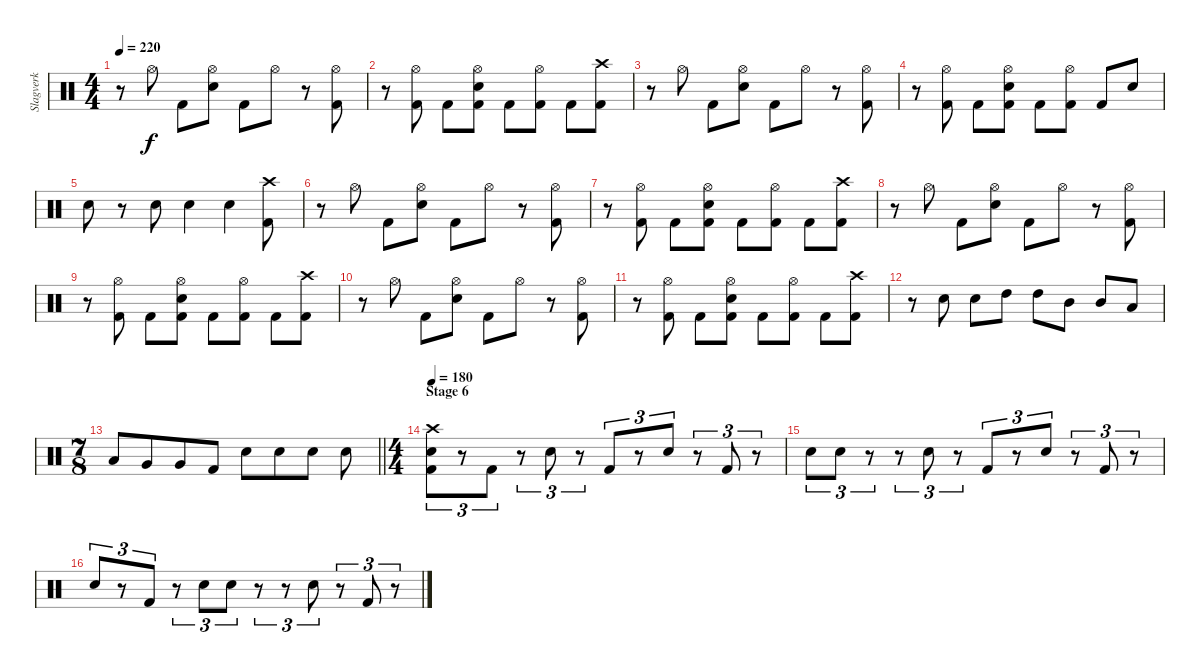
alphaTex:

\track ("Slagverk" "Slagverk") {instrument percussion}
\staff {score}
\articulation defaults
\ts (4 4)
\tempo 220
\clef neutral
\ks c
r.8{dy f} "Hi-Hat (open)".8 "Kick (hit) 2".8 ("Hi-Hat (open)" "Electric Snare (hit)").8 "Kick (hit) 2".8 "Hi-Hat (open)".8 r.8 ("Hi-Hat (open)" "Kick (hit) 2").8 |
r.8 ("Hi-Hat (open)" "Kick (hit) 2").8 "Kick (hit) 2".8 ("Hi-Hat (open)" "Electric Snare (hit)" "Kick (hit) 2").8 "Kick (hit) 2".8 ("Hi-Hat (open)" "Kick (hit) 2").8 "Kick (hit) 2".8 ("Crash high (hit)" "Kick (hit) 2").8 |
r.8 "Hi-Hat (open)".8 "Kick (hit) 2".8 ("Hi-Hat (open)" "Electric Snare (hit)").8 "Kick (hit) 2".8 "Hi-Hat (open)".8 r.8 ("Hi-Hat (open)" "Kick (hit) 2").8 |
r.8 ("Hi-Hat (open)" "Kick (hit) 2").8 "Kick (hit) 2".8 ("Hi-Hat (open)" "Electric Snare (hit)" "Kick (hit) 2").8 "Kick (hit) 2".8 ("Hi-Hat (open)" "Kick (hit) 2").8 "Kick (hit) 2".8 "Electric Snare (hit)".8 |
"Electric Snare (hit)".8 r.8 "Electric Snare (hit)".8 "Electric Snare (hit)".4 "Electric Snare (hit)".4 ("Crash high (hit)" "Kick (hit) 2").8 |
r.8 "Hi-Hat (open)".8 "Kick (hit) 2".8 ("Hi-Hat (open)" "Electric Snare (hit)").8 "Kick (hit) 2".8 "Hi-Hat (open)".8 r.8 ("Hi-Hat (open)" "Kick (hit) 2").8 |
r.8 ("Hi-Hat (open)" "Kick (hit) 2").8 "Kick (hit) 2".8 ("Hi-Hat (open)" "Electric Snare (hit)" "Kick (hit) 2").8 "Kick (hit) 2".8 ("Hi-Hat (open)" "Kick (hit) 2").8 "Kick (hit) 2".8 ("Crash high (hit)" "Kick (hit) 2").8 |
r.8 "Hi-Hat (open)".8 "Kick (hit) 2".8 ("Hi-Hat (open)" "Electric Snare (hit)").8 "Kick (hit) 2".8 "Hi-Hat (open)".8 r.8 ("Hi-Hat (open)" "Kick (hit) 2").8 |
r.8 ("Hi-Hat (open)" "Kick (hit) 2").8 "Kick (hit) 2".8 ("Hi-Hat (open)" "Electric Snare (hit)" "Kick (hit) 2").8 "Kick (hit) 2".8 ("Hi-Hat (open)" "Kick (hit) 2").8 "Kick (hit) 2".8 ("Crash high (hit)" "Kick (hit) 2").8 |
r.8 "Hi-Hat (open)".8 "Kick (hit) 2".8 ("Hi-Hat (open)" "Electric Snare (hit)").8 "Kick (hit) 2".8 "Hi-Hat (open)".8 r.8 ("Hi-Hat (open)" "Kick (hit) 2").8 |
r.8 ("Hi-Hat (open)" "Kick (hit) 2").8 "Kick (hit) 2".8 ("Hi-Hat (open)" "Electric Snare (hit)" "Kick (hit) 2").8 "Kick (hit) 2".8 ("Hi-Hat (open)" "Kick (hit) 2").8 "Kick (hit) 2".8 ("Crash high (hit)" "Kick (hit) 2").8 |
r.8 "Electric Snare (hit)".8 "Electric Snare (hit)".8 "High Tom (hit)".8 "High Tom (hit)".8 "Mid Tom (hit)".8 "Mid Tom (hit)".8 "Low Tom (hit)".8 |
\ts (7 8)
\barLineRight lightlight "Low Tom (hit)".8 "Very Low Tom (hit)".8 "Very Low Tom (hit)".8 "Kick (hit) 2".8 "Electric Snare (hit)".8 "Electric Snare (hit)".8 "Electric Snare (hit)".8 "Electric Snare (hit)".8
|
\ts (4 4)
\section ("" "Stage 6")
\tempo 180
("Crash high (hit)" "Electric Snare (hit)" "Kick (hit) 2").8{tu (3 2)} r.8{tu (3 2)} "Kick (hit) 2".8{tu (3 2)} r.8{tu (3 2)} "Electric Snare (hit)".8{tu (3 2)} r.8{tu (3 2)} "Kick (hit) 2".8{tu (3 2)} r.8{tu (3 2)} "Electric Snare (hit)".8{tu (3 2)} r.8{tu (3 2)} "Kick (hit) 2".8{tu (3 2)} r.8{tu (3 2)} |
"Electric Snare (hit)".8{tu (3 2)} "Electric Snare (hit)".8{tu (3 2)} r.8{tu (3 2)} r.8{tu (3 2)} "Electric Snare (hit)".8{tu (3 2)} r.8{tu (3 2)} "Kick (hit) 2".8{tu (3 2)} r.8{tu (3 2)} "Electric Snare (hit)".8{tu (3 2)} r.8{tu (3 2)} "Kick (hit) 2".8{tu (3 2)} r.8{tu (3 2)} |
"Electric Snare (hit)".8{tu (3 2)} r.8{tu (3 2)} "Kick (hit) 2".8{tu (3 2)} r.8{tu (3 2)} "Electric Snare (hit)".8{tu (3 2)} "Electric Snare (hit)".8{tu (3 2)} r.8{tu (3 2)} r.8{tu (3 2)} "Electric Snare (hit)".8{tu (3 2)} r.8{tu (3 2)} "Kick (hit) 2".8{tu (3 2)} r.8{tu (3 2)}
